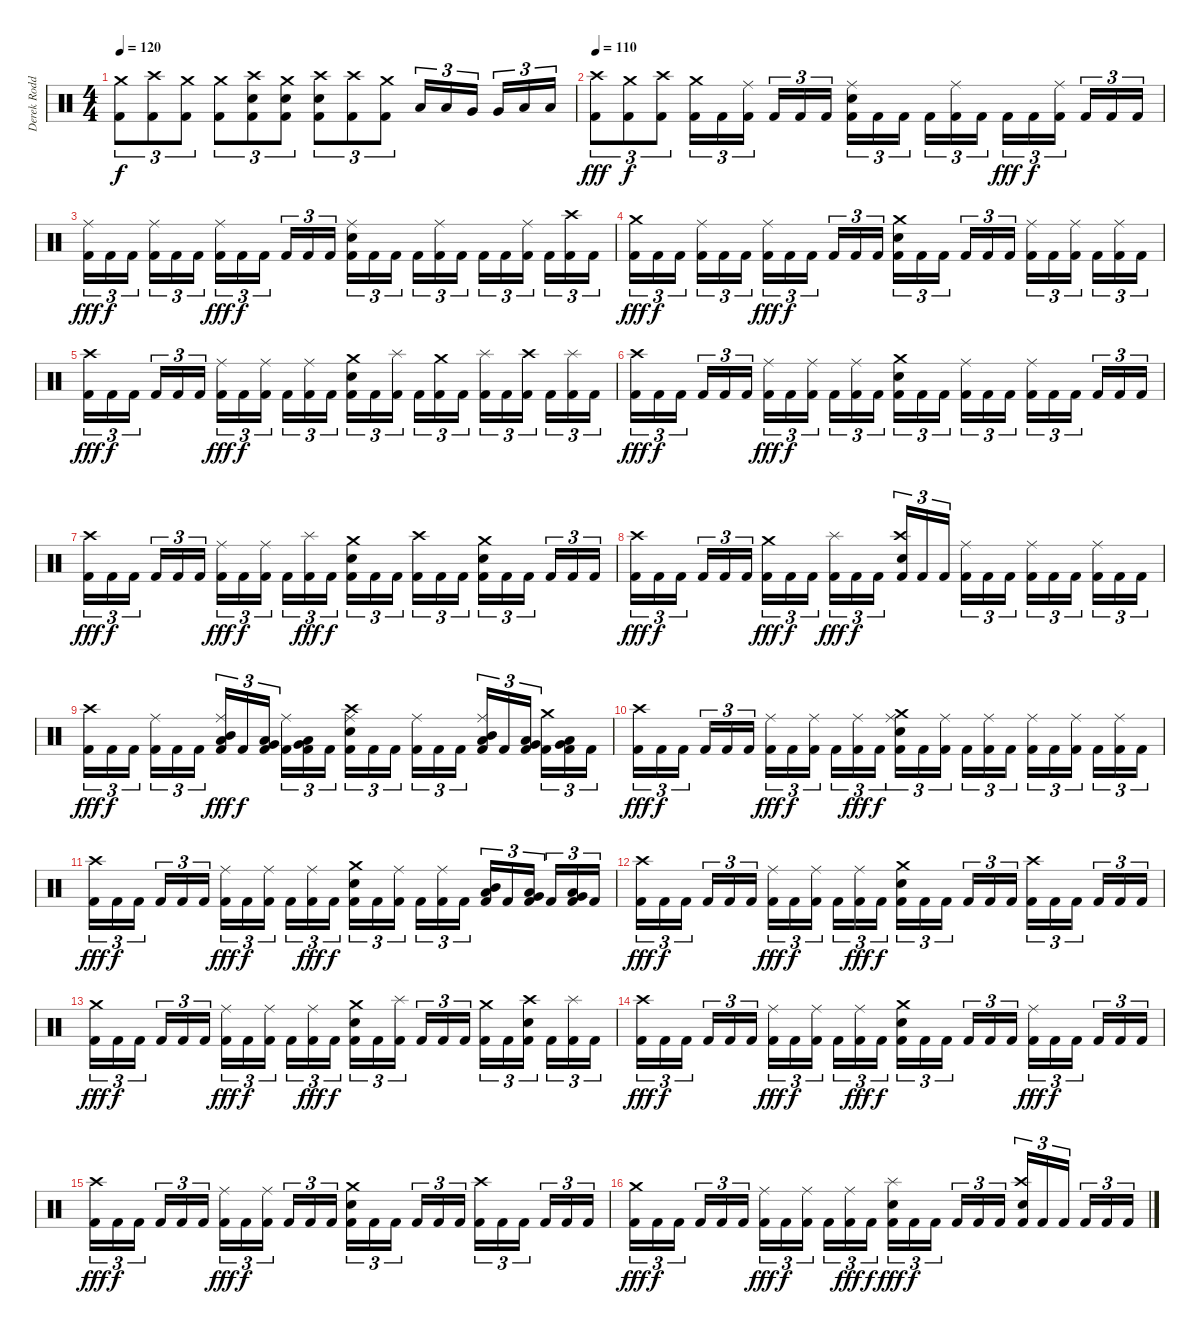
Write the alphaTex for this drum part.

\track ("Derek Roddy" "Derek Rodd") {instrument percussion}
\staff {score}
\articulation defaults
\ts (4 4)
\tempo 120
\clef neutral
\ks c
("Crash medium (hit)" "Kick (hit) 2").8{tu (3 2) dy f} ("Crash high (hit)" "Kick (hit) 2").8{tu (3 2)} ("Crash medium (hit)" "Kick (hit) 2").8{tu (3 2)} ("Crash medium (hit)" "Kick (hit) 2").8{tu (3 2)} ("Crash high (hit)" "Electric Snare (hit)" "Kick (hit) 2").8{tu (3 2)} ("Crash medium (hit)" "Electric Snare (hit)" "Kick (hit) 2").8{tu (3 2)} ("Crash high (hit)" "Electric Snare (hit)" "Kick (hit) 2").8{tu (3 2)} ("Crash high (hit)" "Kick (hit) 2").8{tu (3 2)} ("Crash medium (hit)" "Kick (hit) 2").8{tu (3 2)} "Low Tom (hit)".16{tu (3 2)} "Low Tom (hit)".16{tu (3 2)} "Very Low Tom (hit)".16{tu (3 2)} "Very Low Tom (hit)".16{tu (3 2)} "Low Floor Tom (hit)".16{tu (3 2)} "Low Floor Tom (hit)".16{tu (3 2)} |
\tempo 110
("Crash high (hit)" "Kick (hit) 2").8{tu (3 2) dy fff volume 16} ("Crash medium (hit)" "Kick (hit) 2").8{tu (3 2) dy f} ("Crash high (hit)" "Kick (hit) 2").8{tu (3 2)} ("Crash medium (hit)" "Kick (hit) 2").16{tu (3 2)} "Kick (hit) 2".16{tu (3 2)} ("Ride (middle)" "Kick (hit) 2").16{tu (3 2)} "Kick (hit) 2".16{tu (3 2)} "Kick (hit) 2".16{tu (3 2)} "Kick (hit) 2".16{tu (3 2)} ("Ride (middle)" "Electric Snare (hit)" "Kick (hit) 2").16{tu (3 2)} "Kick (hit) 2".16{tu (3 2)} "Kick (hit) 2".16{tu (3 2)} "Kick (hit) 2".16{tu (3 2)} ("Ride (middle)" "Kick (hit) 2").16{tu (3 2)} "Kick (hit) 2".16{tu (3 2)} "Kick (hit) 2".16{tu (3 2) dy fff} "Kick (hit) 2".16{tu (3 2) dy f} ("Ride (middle)" "Kick (hit) 2").16{tu (3 2)} "Kick (hit) 2".16{tu (3 2)} "Kick (hit) 2".16{tu (3 2)} "Kick (hit) 2".16{tu (3 2)} |
("Ride (middle)" "Kick (hit) 2").16{tu (3 2) dy fff} "Kick (hit) 2".16{tu (3 2) dy f} "Kick (hit) 2".16{tu (3 2)} ("Ride (middle)" "Kick (hit) 2").16{tu (3 2)} "Kick (hit) 2".16{tu (3 2)} "Kick (hit) 2".16{tu (3 2)} ("Ride (middle)" "Kick (hit) 2").16{tu (3 2) dy fff} "Kick (hit) 2".16{tu (3 2) dy f} "Kick (hit) 2".16{tu (3 2)} "Kick (hit) 2".16{tu (3 2)} "Kick (hit) 2".16{tu (3 2)} "Kick (hit) 2".16{tu (3 2)} ("Ride (middle)" "Electric Snare (hit)" "Kick (hit) 2").16{tu (3 2)} "Kick (hit) 2".16{tu (3 2)} "Kick (hit) 2".16{tu (3 2)} "Kick (hit) 2".16{tu (3 2)} ("Ride (middle)" "Kick (hit) 2").16{tu (3 2)} "Kick (hit) 2".16{tu (3 2)} "Kick (hit) 2".16{tu (3 2)} "Kick (hit) 2".16{tu (3 2)} ("Ride (middle)" "Kick (hit) 2").16{tu (3 2)} "Kick (hit) 2".16{tu (3 2)} ("Crash high (hit)" "Kick (hit) 2").16{tu (3 2)} "Kick (hit) 2".16{tu (3 2)} |
("Crash medium (hit)" "Kick (hit) 2").16{tu (3 2) dy fff} "Kick (hit) 2".16{tu (3 2) dy f} "Kick (hit) 2".16{tu (3 2)} ("Ride (middle)" "Kick (hit) 2").16{tu (3 2)} "Kick (hit) 2".16{tu (3 2)} "Kick (hit) 2".16{tu (3 2)} ("Ride (middle)" "Kick (hit) 2").16{tu (3 2) dy fff} "Kick (hit) 2".16{tu (3 2) dy f} "Kick (hit) 2".16{tu (3 2)} "Kick (hit) 2".16{tu (3 2)} "Kick (hit) 2".16{tu (3 2)} "Kick (hit) 2".16{tu (3 2)} ("Crash medium (hit)" "Electric Snare (hit)" "Kick (hit) 2").16{tu (3 2)} "Kick (hit) 2".16{tu (3 2)} "Kick (hit) 2".16{tu (3 2)} "Kick (hit) 2".16{tu (3 2)} "Kick (hit) 2".16{tu (3 2)} "Kick (hit) 2".16{tu (3 2)} ("Ride (middle)" "Kick (hit) 2").16{tu (3 2)} "Kick (hit) 2".16{tu (3 2)} ("Ride (middle)" "Kick (hit) 2").16{tu (3 2)} "Kick (hit) 2".16{tu (3 2)} ("Ride (middle)" "Kick (hit) 2").16{tu (3 2)} "Kick (hit) 2".16{tu (3 2)} |
("Crash high (hit)" "Kick (hit) 2").16{tu (3 2) dy fff} "Kick (hit) 2".16{tu (3 2) dy f} "Kick (hit) 2".16{tu (3 2)} "Kick (hit) 2".16{tu (3 2)} "Kick (hit) 2".16{tu (3 2)} "Kick (hit) 2".16{tu (3 2)} ("Ride (middle)" "Kick (hit) 2").16{tu (3 2) dy fff} "Kick (hit) 2".16{tu (3 2) dy f} ("Ride (middle)" "Kick (hit) 2").16{tu (3 2)} "Kick (hit) 2".16{tu (3 2)} ("Ride (middle)" "Kick (hit) 2").16{tu (3 2)} "Kick (hit) 2".16{tu (3 2)} ("Crash medium (hit)" "Electric Snare (hit)" "Kick (hit) 2").16{tu (3 2)} "Kick (hit) 2".16{tu (3 2)} ("Splash (hit)" "Kick (hit) 2").16{tu (3 2)} "Kick (hit) 2".16{tu (3 2)} ("Crash medium (hit)" "Kick (hit) 2").16{tu (3 2)} "Kick (hit) 2".16{tu (3 2)} ("Splash (hit)" "Kick (hit) 2").16{tu (3 2)} "Kick (hit) 2".16{tu (3 2)} ("Crash high (hit)" "Kick (hit) 2").16{tu (3 2)} "Kick (hit) 2".16{tu (3 2)} ("Splash (hit)" "Kick (hit) 2").16{tu (3 2)} "Kick (hit) 2".16{tu (3 2)} |
("Crash high (hit)" "Kick (hit) 2").16{tu (3 2) dy fff} "Kick (hit) 2".16{tu (3 2) dy f} "Kick (hit) 2".16{tu (3 2)} "Kick (hit) 2".16{tu (3 2)} "Kick (hit) 2".16{tu (3 2)} "Kick (hit) 2".16{tu (3 2)} ("Ride (middle)" "Kick (hit) 2").16{tu (3 2) dy fff} "Kick (hit) 2".16{tu (3 2) dy f} ("Ride (middle)" "Kick (hit) 2").16{tu (3 2)} "Kick (hit) 2".16{tu (3 2)} ("Ride (middle)" "Kick (hit) 2").16{tu (3 2)} "Kick (hit) 2".16{tu (3 2)} ("Crash medium (hit)" "Electric Snare (hit)" "Kick (hit) 2").16{tu (3 2)} "Kick (hit) 2".16{tu (3 2)} "Kick (hit) 2".16{tu (3 2)} ("Ride (middle)" "Kick (hit) 2").16{tu (3 2)} "Kick (hit) 2".16{tu (3 2)} "Kick (hit) 2".16{tu (3 2)} ("Ride (middle)" "Kick (hit) 2").16{tu (3 2)} "Kick (hit) 2".16{tu (3 2)} "Kick (hit) 2".16{tu (3 2)} "Kick (hit) 2".16{tu (3 2)} "Kick (hit) 2".16{tu (3 2)} "Kick (hit) 2".16{tu (3 2)} |
("Crash high (hit)" "Kick (hit) 2").16{tu (3 2) dy fff} "Kick (hit) 2".16{tu (3 2) dy f} "Kick (hit) 2".16{tu (3 2)} "Kick (hit) 2".16{tu (3 2)} "Kick (hit) 2".16{tu (3 2)} "Kick (hit) 2".16{tu (3 2)} ("Ride (middle)" "Kick (hit) 2").16{tu (3 2) dy fff} "Kick (hit) 2".16{tu (3 2) dy f} ("Ride (middle)" "Kick (hit) 2").16{tu (3 2)} "Kick (hit) 2".16{tu (3 2)} ("Splash (hit)" "Kick (hit) 2").16{tu (3 2) dy fff} "Kick (hit) 2".16{tu (3 2) dy f} ("Crash medium (hit)" "Electric Snare (hit)" "Kick (hit) 2").16{tu (3 2)} "Kick (hit) 2".16{tu (3 2)} "Kick (hit) 2".16{tu (3 2)} ("Crash high (hit)" "Kick (hit) 2").16{tu (3 2)} "Kick (hit) 2".16{tu (3 2)} "Kick (hit) 2".16{tu (3 2)} ("Crash medium (hit)" "Electric Snare (hit)" "Kick (hit) 2").16{tu (3 2)} "Kick (hit) 2".16{tu (3 2)} "Kick (hit) 2".16{tu (3 2)} "Kick (hit) 2".16{tu (3 2)} "Kick (hit) 2".16{tu (3 2)} "Kick (hit) 2".16{tu (3 2)} |
("Crash high (hit)" "Kick (hit) 2").16{tu (3 2) dy fff} "Kick (hit) 2".16{tu (3 2) dy f} "Kick (hit) 2".16{tu (3 2)} "Kick (hit) 2".16{tu (3 2)} "Kick (hit) 2".16{tu (3 2)} "Kick (hit) 2".16{tu (3 2)} ("Crash medium (hit)" "Kick (hit) 2").16{tu (3 2) dy fff} "Kick (hit) 2".16{tu (3 2) dy f} "Kick (hit) 2".16{tu (3 2)} ("Splash (hit)" "Kick (hit) 2").16{tu (3 2) dy fff} "Kick (hit) 2".16{tu (3 2) dy f} "Kick (hit) 2".16{tu (3 2)} ("Crash high (hit)" "Electric Snare (hit)" "Kick (hit) 2").16{tu (3 2)} "Kick (hit) 2".16{tu (3 2)} "Kick (hit) 2".16{tu (3 2)} ("Ride (middle)" "Kick (hit) 2").16{tu (3 2)} "Kick (hit) 2".16{tu (3 2)} "Kick (hit) 2".16{tu (3 2)} ("Ride (middle)" "Kick (hit) 2").16{tu (3 2)} "Kick (hit) 2".16{tu (3 2)} "Kick (hit) 2".16{tu (3 2)} ("Ride (middle)" "Kick (hit) 2").16{tu (3 2)} "Kick (hit) 2".16{tu (3 2)} "Kick (hit) 2".16{tu (3 2)} |
("Crash high (hit)" "Kick (hit) 2").16{tu (3 2) dy fff} "Kick (hit) 2".16{tu (3 2) dy f} "Kick (hit) 2".16{tu (3 2)} ("Ride (middle)" "Kick (hit) 2").16{tu (3 2)} "Kick (hit) 2".16{tu (3 2)} "Kick (hit) 2".16{tu (3 2)} ("Ride (middle)" "Low Tom (hit)" "Mid Tom (hit)" "Kick (hit) 2").16{tu (3 2) dy fff} "Kick (hit) 2".16{tu (3 2) dy f} ("Very Low Tom (hit)" "Low Tom (hit)" "Kick (hit) 2").16{tu (3 2)} ("Ride (middle)" "Kick (hit) 2").16{tu (3 2)} ("Low Floor Tom (hit)" "Very Low Tom (hit)" "Kick (hit) 2").16{tu (3 2)} "Kick (hit) 2".16{tu (3 2)} ("Ride (middle)" "Crash high (hit)" "Electric Snare (hit)" "Kick (hit) 2").16{tu (3 2)} "Kick (hit) 2".16{tu (3 2)} "Kick (hit) 2".16{tu (3 2)} ("Ride (middle)" "Kick (hit) 2").16{tu (3 2)} "Kick (hit) 2".16{tu (3 2)} "Kick (hit) 2".16{tu (3 2)} ("Ride (middle)" "Low Tom (hit)" "Mid Tom (hit)" "Kick (hit) 2").16{tu (3 2)} "Kick (hit) 2".16{tu (3 2)} ("Very Low Tom (hit)" "Low Tom (hit)" "Kick (hit) 2").16{tu (3 2)} ("Crash medium (hit)" "Kick (hit) 2").16{tu (3 2)} ("Low Floor Tom (hit)" "Very Low Tom (hit)" "Kick (hit) 2").16{tu (3 2)} "Kick (hit) 2".16{tu (3 2)} |
("Crash high (hit)" "Kick (hit) 2").16{tu (3 2) dy fff} "Kick (hit) 2".16{tu (3 2) dy f} "Kick (hit) 2".16{tu (3 2)} "Kick (hit) 2".16{tu (3 2)} "Kick (hit) 2".16{tu (3 2)} "Kick (hit) 2".16{tu (3 2)} ("Ride (middle)" "Kick (hit) 2").16{tu (3 2) dy fff} "Kick (hit) 2".16{tu (3 2) dy f} ("Ride (middle)" "Kick (hit) 2").16{tu (3 2)} "Kick (hit) 2".16{tu (3 2)} ("Ride (middle)" "Kick (hit) 2").16{tu (3 2) dy fff} "Kick (hit) 2".16{tu (3 2) dy f} ("Crash medium (hit)" "Ride (middle)" "Electric Snare (hit)" "Kick (hit) 2").16{tu (3 2)} "Kick (hit) 2".16{tu (3 2)} ("Ride (middle)" "Kick (hit) 2").16{tu (3 2)} "Kick (hit) 2".16{tu (3 2)} ("Ride (middle)" "Kick (hit) 2").16{tu (3 2)} "Kick (hit) 2".16{tu (3 2)} ("Ride (middle)" "Kick (hit) 2").16{tu (3 2)} "Kick (hit) 2".16{tu (3 2)} ("Ride (middle)" "Kick (hit) 2").16{tu (3 2)} "Kick (hit) 2".16{tu (3 2)} ("Ride (middle)" "Kick (hit) 2").16{tu (3 2)} "Kick (hit) 2".16{tu (3 2)} |
("Crash high (hit)" "Kick (hit) 2").16{tu (3 2) dy fff} "Kick (hit) 2".16{tu (3 2) dy f} "Kick (hit) 2".16{tu (3 2)} "Kick (hit) 2".16{tu (3 2)} "Kick (hit) 2".16{tu (3 2)} "Kick (hit) 2".16{tu (3 2)} ("Ride (middle)" "Kick (hit) 2").16{tu (3 2) dy fff} "Kick (hit) 2".16{tu (3 2) dy f} ("Ride (middle)" "Kick (hit) 2").16{tu (3 2)} "Kick (hit) 2".16{tu (3 2)} ("Ride (middle)" "Kick (hit) 2").16{tu (3 2) dy fff} "Kick (hit) 2".16{tu (3 2) dy f} ("Crash medium (hit)" "Electric Snare (hit)" "Kick (hit) 2").16{tu (3 2)} "Kick (hit) 2".16{tu (3 2)} ("Ride (middle)" "Kick (hit) 2").16{tu (3 2)} "Kick (hit) 2".16{tu (3 2)} ("Ride (middle)" "Kick (hit) 2").16{tu (3 2)} "Kick (hit) 2".16{tu (3 2)} ("Low Tom (hit)" "Mid Tom (hit)" "Kick (hit) 2").16{tu (3 2)} "Kick (hit) 2".16{tu (3 2)} ("Very Low Tom (hit)" "Low Tom (hit)" "Kick (hit) 2").16{tu (3 2)} "Kick (hit) 2".16{tu (3 2)} ("Low Floor Tom (hit)" "Very Low Tom (hit)" "Kick (hit) 2").16{tu (3 2)} "Kick (hit) 2".16{tu (3 2)} |
("Crash high (hit)" "Kick (hit) 2").16{tu (3 2) dy fff} "Kick (hit) 2".16{tu (3 2) dy f} "Kick (hit) 2".16{tu (3 2)} "Kick (hit) 2".16{tu (3 2)} "Kick (hit) 2".16{tu (3 2)} "Kick (hit) 2".16{tu (3 2)} ("Ride (middle)" "Kick (hit) 2").16{tu (3 2) dy fff} "Kick (hit) 2".16{tu (3 2) dy f} ("Ride (middle)" "Kick (hit) 2").16{tu (3 2)} "Kick (hit) 2".16{tu (3 2)} ("Ride (middle)" "Kick (hit) 2").16{tu (3 2) dy fff} "Kick (hit) 2".16{tu (3 2) dy f} ("Crash medium (hit)" "Electric Snare (hit)" "Kick (hit) 2").16{tu (3 2)} "Kick (hit) 2".16{tu (3 2)} "Kick (hit) 2".16{tu (3 2)} "Kick (hit) 2".16{tu (3 2)} "Kick (hit) 2".16{tu (3 2)} "Kick (hit) 2".16{tu (3 2)} ("Crash high (hit)" "Kick (hit) 2").16{tu (3 2)} "Kick (hit) 2".16{tu (3 2)} "Kick (hit) 2".16{tu (3 2)} "Kick (hit) 2".16{tu (3 2)} "Kick (hit) 2".16{tu (3 2)} "Kick (hit) 2".16{tu (3 2)} |
("Crash medium (hit)" "Kick (hit) 2").16{tu (3 2) dy fff} "Kick (hit) 2".16{tu (3 2) dy f} "Kick (hit) 2".16{tu (3 2)} "Kick (hit) 2".16{tu (3 2)} "Kick (hit) 2".16{tu (3 2)} "Kick (hit) 2".16{tu (3 2)} ("Ride (middle)" "Kick (hit) 2").16{tu (3 2) dy fff} "Kick (hit) 2".16{tu (3 2) dy f} ("Ride (middle)" "Kick (hit) 2").16{tu (3 2)} "Kick (hit) 2".16{tu (3 2)} ("Ride (middle)" "Kick (hit) 2").16{tu (3 2) dy fff} "Kick (hit) 2".16{tu (3 2) dy f} ("Crash medium (hit)" "Electric Snare (hit)" "Kick (hit) 2").16{tu (3 2)} "Kick (hit) 2".16{tu (3 2)} ("Splash (hit)" "Kick (hit) 2").16{tu (3 2)} "Kick (hit) 2".16{tu (3 2)} "Kick (hit) 2".16{tu (3 2)} "Kick (hit) 2".16{tu (3 2)} ("Crash medium (hit)" "Kick (hit) 2").16{tu (3 2)} "Kick (hit) 2".16{tu (3 2)} ("Crash high (hit)" "Electric Snare (hit)" "Kick (hit) 2").16{tu (3 2)} "Kick (hit) 2".16{tu (3 2)} ("Splash (hit)" "Kick (hit) 2").16{tu (3 2)} "Kick (hit) 2".16{tu (3 2)} |
("Crash high (hit)" "Kick (hit) 2").16{tu (3 2) dy fff} "Kick (hit) 2".16{tu (3 2) dy f} "Kick (hit) 2".16{tu (3 2)} "Kick (hit) 2".16{tu (3 2)} "Kick (hit) 2".16{tu (3 2)} "Kick (hit) 2".16{tu (3 2)} ("Ride (middle)" "Kick (hit) 2").16{tu (3 2) dy fff} "Kick (hit) 2".16{tu (3 2) dy f} ("Ride (middle)" "Kick (hit) 2").16{tu (3 2)} "Kick (hit) 2".16{tu (3 2)} ("Ride (middle)" "Kick (hit) 2").16{tu (3 2) dy fff} "Kick (hit) 2".16{tu (3 2) dy f} ("Crash medium (hit)" "Electric Snare (hit)" "Kick (hit) 2").16{tu (3 2)} "Kick (hit) 2".16{tu (3 2)} "Kick (hit) 2".16{tu (3 2)} "Kick (hit) 2".16{tu (3 2)} "Kick (hit) 2".16{tu (3 2)} "Kick (hit) 2".16{tu (3 2)} ("Ride (middle)" "Kick (hit) 2").16{tu (3 2) dy fff} "Kick (hit) 2".16{tu (3 2) dy f} "Kick (hit) 2".16{tu (3 2)} "Kick (hit) 2".16{tu (3 2)} "Kick (hit) 2".16{tu (3 2)} "Kick (hit) 2".16{tu (3 2)} |
("Crash high (hit)" "Kick (hit) 2").16{tu (3 2) dy fff} "Kick (hit) 2".16{tu (3 2) dy f} "Kick (hit) 2".16{tu (3 2)} "Kick (hit) 2".16{tu (3 2)} "Kick (hit) 2".16{tu (3 2)} "Kick (hit) 2".16{tu (3 2)} ("Ride (middle)" "Kick (hit) 2").16{tu (3 2) dy fff} "Kick (hit) 2".16{tu (3 2) dy f} ("Ride (middle)" "Kick (hit) 2").16{tu (3 2)} "Kick (hit) 2".16{tu (3 2)} "Kick (hit) 2".16{tu (3 2)} "Kick (hit) 2".16{tu (3 2)} ("Crash medium (hit)" "Electric Snare (hit)" "Kick (hit) 2").16{tu (3 2)} "Kick (hit) 2".16{tu (3 2)} "Kick (hit) 2".16{tu (3 2)} "Kick (hit) 2".16{tu (3 2)} "Kick (hit) 2".16{tu (3 2)} "Kick (hit) 2".16{tu (3 2)} ("Crash high (hit)" "Kick (hit) 2").16{tu (3 2)} "Kick (hit) 2".16{tu (3 2)} "Kick (hit) 2".16{tu (3 2)} "Kick (hit) 2".16{tu (3 2)} "Kick (hit) 2".16{tu (3 2)} "Kick (hit) 2".16{tu (3 2)} |
("Crash medium (hit)" "Kick (hit) 2").16{tu (3 2) dy fff} "Kick (hit) 2".16{tu (3 2) dy f} "Kick (hit) 2".16{tu (3 2)} "Kick (hit) 2".16{tu (3 2)} "Kick (hit) 2".16{tu (3 2)} "Kick (hit) 2".16{tu (3 2)} ("Ride (middle)" "Kick (hit) 2").16{tu (3 2) dy fff} "Kick (hit) 2".16{tu (3 2) dy f} ("Ride (middle)" "Kick (hit) 2").16{tu (3 2)} "Kick (hit) 2".16{tu (3 2)} ("Ride (middle)" "Kick (hit) 2").16{tu (3 2) dy fff} "Kick (hit) 2".16{tu (3 2) dy f} ("Splash (hit)" "Electric Snare (hit)" "Kick (hit) 2").16{tu (3 2) dy fff} "Kick (hit) 2".16{tu (3 2) dy f} "Kick (hit) 2".16{tu (3 2)} "Kick (hit) 2".16{tu (3 2)} "Kick (hit) 2".16{tu (3 2)} "Kick (hit) 2".16{tu (3 2)} ("Crash high (hit)" "Electric Snare (hit)" "Kick (hit) 2").16{tu (3 2)} "Kick (hit) 2".16{tu (3 2)} "Kick (hit) 2".16{tu (3 2)} "Kick (hit) 2".16{tu (3 2)} "Kick (hit) 2".16{tu (3 2)} "Kick (hit) 2".16{tu (3 2)}
